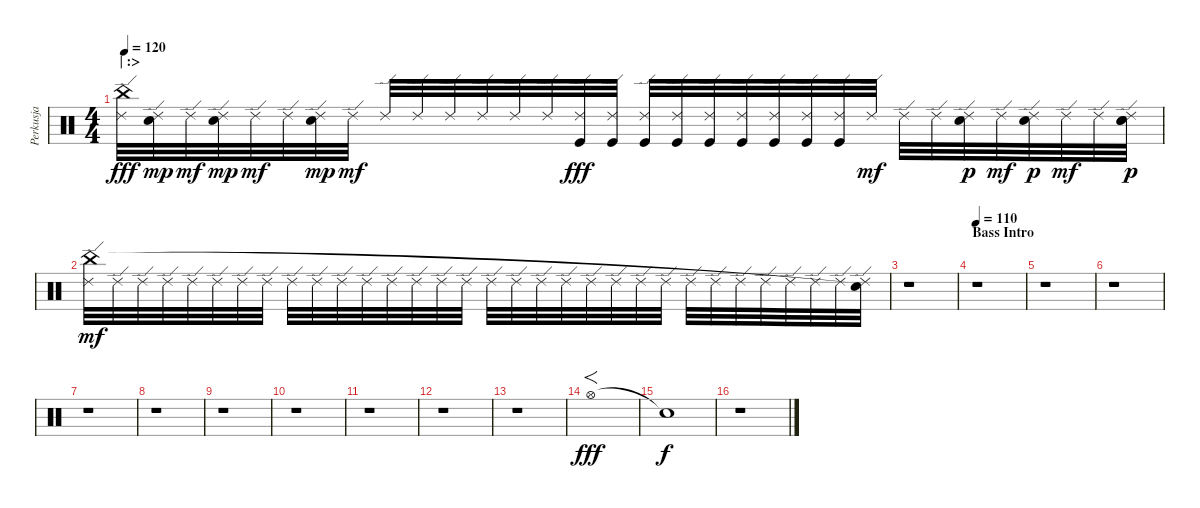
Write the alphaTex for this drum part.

\track ("Perkusja" "Perkusja") {instrument percussion}
\staff {score}
\articulation defaults
\ts (4 4)
\section ("" " | :>")
\tempo 120
\clef neutral
\ks c
("Ride (edge) 2" "China (hit)").32{dy fff} ("Ride (edge) 2" "Electric Snare (hit)").32{dy mp} "Ride (edge) 2".32{dy mf} ("Ride (edge) 2" "Electric Snare (hit)").32{dy mp} "Ride (edge) 2".32{dy mf} "Ride (edge) 2".32 ("Ride (edge) 2" "Electric Snare (hit)").32{dy mp} "Ride (edge) 2".32{dy mf} "Ride (edge) 2".32 "Ride (edge) 2".32 "Ride (edge) 2".32 "Ride (edge) 2".32 "Ride (edge) 2".32 "Ride (edge) 2".32 ("Ride (edge) 2" "Kick (hit)").32{dy fff} ("Ride (edge) 2" "Kick (hit)").32 ("Ride (edge) 2" "Kick (hit)").32 ("Ride (edge) 2" "Kick (hit)").32 ("Ride (edge) 2" "Kick (hit)").32 ("Ride (edge) 2" "Kick (hit)").32 ("Ride (edge) 2" "Kick (hit)").32 ("Ride (edge) 2" "Kick (hit)").32 ("Ride (edge) 2" "Kick (hit)").32 "Ride (edge) 2".32{dy mf} "Ride (edge) 2".32 "Ride (edge) 2".32 ("Ride (edge) 2" "Electric Snare (hit)").32{dy p} "Ride (edge) 2".32{dy mf} ("Ride (edge) 2" "Electric Snare (hit)").32{dy p} "Ride (edge) 2".32{dy mf} "Ride (edge) 2".32 ("Ride (edge) 2" "Electric Snare (hit)" "Snare (hit)").32{dy p} |
("Ride (edge) 2" "China (hit)").32{dy mf} "Ride (edge) 2".32 "Ride (edge) 2".32 "Ride (edge) 2".32 "Ride (edge) 2".32 "Ride (edge) 2".32 "Ride (edge) 2".32 "Ride (edge) 2".32 "Ride (edge) 2".32 "Ride (edge) 2".32 "Ride (edge) 2".32 "Ride (edge) 2".32 "Ride (edge) 2".32 "Ride (edge) 2".32 "Ride (edge) 2".32 "Ride (edge) 2".32 "Ride (edge) 2".32 "Ride (edge) 2".32 "Ride (edge) 2".32 "Ride (edge) 2".32 "Ride (edge) 2".32 "Ride (edge) 2".32 "Ride (edge) 2".32 "Ride (edge) 2".32 "Ride (edge) 2".32 "Ride (edge) 2".32 "Ride (edge) 2".32 "Ride (edge) 2".32 "Ride (edge) 2".32 "Ride (edge) 2".32 "Ride (edge) 2".32 ("Ride (edge) 2" "Snare (hit)"{t}).32 |
r.1 |
\section ("" "Bass Intro")
\tempo 110
r.1 |
r.1 |
r.1 |
r.1 |
r.1 |
r.1 |
r.1 |
r.1 |
r.1 |
r.1 |
"Hi-Hat (open)".1{f dy fff volume 16} |
"Snare (hit)"{t}.1{dy f} |
r.1{volume 13}
